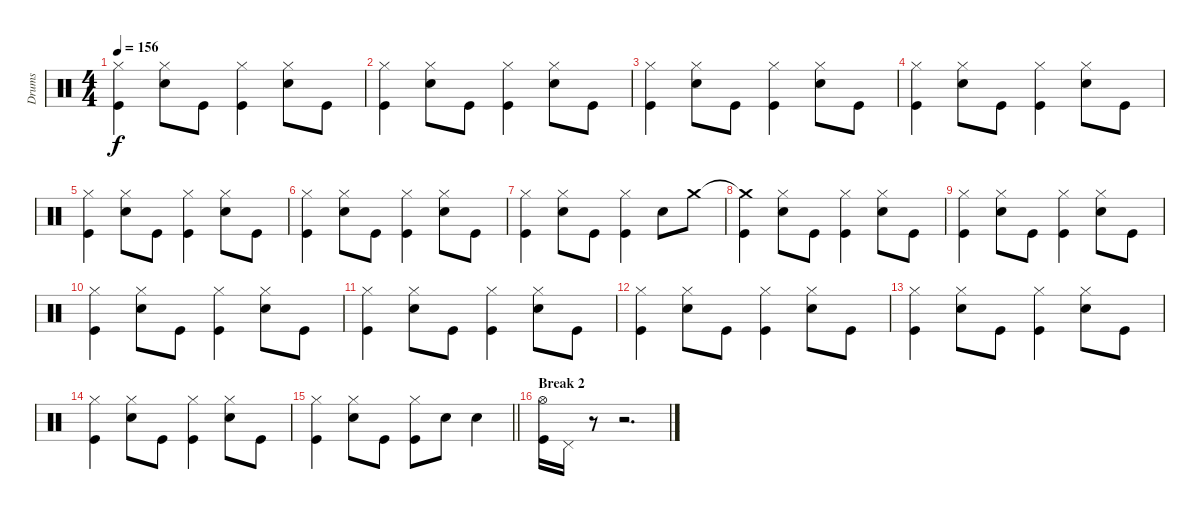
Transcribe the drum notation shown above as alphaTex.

\track ("Drums" "Drums") {instrument percussion}
\staff {score}
\articulation defaults
\ts (4 4)
\tempo 156
\clef neutral
\ks c
("Hi-Hat (closed)" "Kick (hit)").4{dy f} ("Hi-Hat (closed)" "Snare (hit) 2").8 "Kick (hit)".8 ("Hi-Hat (closed)" "Kick (hit)").4 ("Hi-Hat (closed)" "Snare (hit) 2").8 "Kick (hit)".8 |
("Hi-Hat (closed)" "Kick (hit)").4 ("Hi-Hat (closed)" "Snare (hit) 2").8 "Kick (hit)".8 ("Hi-Hat (closed)" "Kick (hit)").4 ("Hi-Hat (closed)" "Snare (hit) 2").8 "Kick (hit)".8 |
("Hi-Hat (closed)" "Kick (hit)").4 ("Hi-Hat (closed)" "Snare (hit) 2").8 "Kick (hit)".8 ("Hi-Hat (closed)" "Kick (hit)").4 ("Hi-Hat (closed)" "Snare (hit) 2").8 "Kick (hit)".8 |
("Hi-Hat (closed)" "Kick (hit)").4 ("Hi-Hat (closed)" "Snare (hit) 2").8 "Kick (hit)".8 ("Hi-Hat (closed)" "Kick (hit)").4 ("Hi-Hat (closed)" "Snare (hit) 2").8 "Kick (hit)".8 |
("Hi-Hat (closed)" "Kick (hit)").4 ("Hi-Hat (closed)" "Snare (hit) 2").8 "Kick (hit)".8 ("Hi-Hat (closed)" "Kick (hit)").4 ("Hi-Hat (closed)" "Snare (hit) 2").8 "Kick (hit)".8 |
("Hi-Hat (closed)" "Kick (hit)").4 ("Hi-Hat (closed)" "Snare (hit) 2").8 "Kick (hit)".8 ("Hi-Hat (closed)" "Kick (hit)").4 ("Hi-Hat (closed)" "Snare (hit) 2").8 "Kick (hit)".8 |
("Hi-Hat (closed)" "Kick (hit)").4 ("Hi-Hat (closed)" "Snare (hit) 2").8 "Kick (hit)".8 ("Hi-Hat (closed)" "Kick (hit)").4 "Snare (hit) 2".8 "Crash medium (hit)".8 |
("Crash medium (hit)"{t} "Kick (hit)").4 ("Hi-Hat (closed)" "Snare (hit) 2").8 "Kick (hit)".8 ("Hi-Hat (closed)" "Kick (hit)").4 ("Hi-Hat (closed)" "Snare (hit) 2").8 "Kick (hit)".8 |
("Hi-Hat (closed)" "Kick (hit)").4 ("Hi-Hat (closed)" "Snare (hit) 2").8 "Kick (hit)".8 ("Hi-Hat (closed)" "Kick (hit)").4 ("Hi-Hat (closed)" "Snare (hit) 2").8 "Kick (hit)".8 |
("Hi-Hat (closed)" "Kick (hit)").4 ("Hi-Hat (closed)" "Snare (hit) 2").8 "Kick (hit)".8 ("Hi-Hat (closed)" "Kick (hit)").4 ("Hi-Hat (closed)" "Snare (hit) 2").8 "Kick (hit)".8 |
("Hi-Hat (closed)" "Kick (hit)").4 ("Hi-Hat (closed)" "Snare (hit) 2").8 "Kick (hit)".8 ("Hi-Hat (closed)" "Kick (hit)").4 ("Hi-Hat (closed)" "Snare (hit) 2").8 "Kick (hit)".8 |
("Hi-Hat (closed)" "Kick (hit)").4 ("Hi-Hat (closed)" "Snare (hit) 2").8 "Kick (hit)".8 ("Hi-Hat (closed)" "Kick (hit)").4 ("Hi-Hat (closed)" "Snare (hit) 2").8 "Kick (hit)".8 |
("Hi-Hat (closed)" "Kick (hit)").4 ("Hi-Hat (closed)" "Snare (hit) 2").8 "Kick (hit)".8 ("Hi-Hat (closed)" "Kick (hit)").4 ("Hi-Hat (closed)" "Snare (hit) 2").8 "Kick (hit)".8 |
("Hi-Hat (closed)" "Kick (hit)").4 ("Hi-Hat (closed)" "Snare (hit) 2").8 "Kick (hit)".8 ("Hi-Hat (closed)" "Kick (hit)").4 ("Hi-Hat (closed)" "Snare (hit) 2").8 "Kick (hit)".8 |
\barLineRight lightlight
("Hi-Hat (closed)" "Kick (hit)").4 ("Hi-Hat (closed)" "Snare (hit) 2").8 "Kick (hit)".8 ("Hi-Hat (closed)" "Kick (hit)").8 "Snare (hit) 2".8 "Snare (hit) 2".4 |
\section ("" "Break 2")
("Hi-Hat (open)" "Kick (hit)").16 "Pedal Hi-Hat (hit)".16 r.8 r.2{d}
